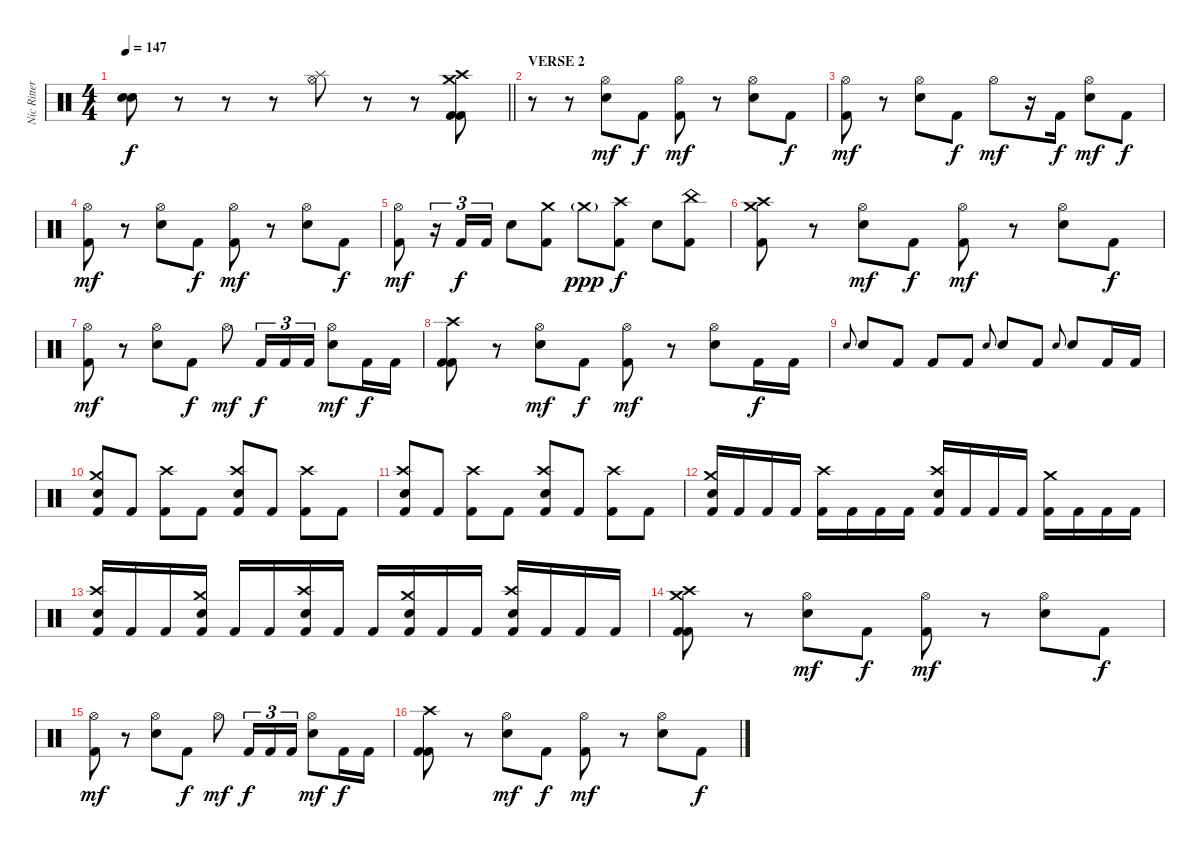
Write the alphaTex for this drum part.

\track ("Nic Ritter" "Nic Ritter") {instrument percussion}
\staff {score}
\articulation defaults
\ts (4 4)
\tempo 147
\clef neutral
\barLineRight lightlight
\ks c
("Electric Snare (hit)" "Electric Snare (hit)").8{bd 30 dy f} r.8 r.8 r.8 ("Splash (hit)" "Hi-Hat (open)").8 r.8 r.8 ("Crash medium (hit)" "Crash high (hit)" "Kick (hit) 2" "Kick (hit) 2").8 |
\section ("" "VERSE 2")
r.8 r.8 ("Hi-Hat (open)" "Electric Snare (hit)").8{dy mf} "Kick (hit) 2".8{dy f} ("Hi-Hat (open)" "Kick (hit) 2").8{dy mf} r.8 ("Hi-Hat (open)" "Electric Snare (hit)").8 "Kick (hit) 2".8{dy f} |
("Hi-Hat (open)" "Kick (hit) 2").8{dy mf} r.8 ("Hi-Hat (open)" "Electric Snare (hit)").8 "Kick (hit) 2".8{dy f} "Hi-Hat (open)".8{dy mf} r.16 "Kick (hit) 2".16{dy f} ("Hi-Hat (open)" "Electric Snare (hit)").8{dy mf} "Kick (hit) 2".8{dy f} |
("Hi-Hat (open)" "Kick (hit) 2").8{dy mf} r.8 ("Hi-Hat (open)" "Electric Snare (hit)").8 "Kick (hit) 2".8{dy f} ("Hi-Hat (open)" "Kick (hit) 2").8{dy mf} r.8 ("Hi-Hat (open)" "Electric Snare (hit)").8 "Kick (hit) 2".8{dy f} |
("Hi-Hat (open)" "Kick (hit) 2").8{dy mf} r.16{tu (3 2)} "Kick (hit) 2".16{tu (3 2) dy f} "Kick (hit) 2".16{tu (3 2)} "Electric Snare (hit)".8 ("Crash medium (hit)" "Kick (hit) 2").8 "Crash medium (hit)"{g}.8{dy ppp} ("Crash high (hit)" "Kick (hit) 2").8{dy f} "Electric Snare (hit)".8 ("China (hit)" "Kick (hit) 2").8 |
("Crash medium (hit)" "Crash high (hit)" "Kick (hit) 2").8 r.8 ("Hi-Hat (open)" "Electric Snare (hit)").8{dy mf} "Kick (hit) 2".8{dy f} ("Hi-Hat (open)" "Kick (hit) 2").8{dy mf} r.8 ("Hi-Hat (open)" "Electric Snare (hit)").8 "Kick (hit) 2".8{dy f} |
("Hi-Hat (open)" "Kick (hit) 2").8{dy mf} r.8 ("Hi-Hat (open)" "Electric Snare (hit)").8 "Kick (hit) 2".8{dy f} "Hi-Hat (open)".8{dy mf} "Kick (hit) 2".16{tu (3 2) dy f} "Kick (hit) 2".16{tu (3 2)} "Kick (hit) 2".16{tu (3 2)} ("Hi-Hat (open)" "Electric Snare (hit)").8{dy mf} "Kick (hit) 2".16{dy f} "Kick (hit) 2".16 |
("Crash high (hit)" "Kick (hit) 2" "Kick (hit) 2").8 r.8 ("Hi-Hat (open)" "Electric Snare (hit)").8{dy mf} "Kick (hit) 2".8{dy f} ("Hi-Hat (open)" "Kick (hit) 2").8{dy mf} r.8 ("Hi-Hat (open)" "Electric Snare (hit)").8 "Kick (hit) 2".16{dy f} "Kick (hit) 2".16 |
"Electric Snare (hit)".8{gr onbeat} "Electric Snare (hit)".8 "Kick (hit) 2".8 "Kick (hit) 2".8 "Kick (hit) 2".8 "Electric Snare (hit)".8{gr onbeat} "Electric Snare (hit)".8 "Kick (hit) 2".8 "Electric Snare (hit)".8{gr onbeat} "Electric Snare (hit)".8 "Kick (hit) 2".16 "Kick (hit) 2".16 |
("Crash medium (hit)" "Electric Snare (hit)" "Kick (hit) 2").8 "Kick (hit) 2".8 ("Crash high (hit)" "Kick (hit) 2").8 "Kick (hit) 2".8 ("Crash high (hit)" "Electric Snare (hit)" "Kick (hit) 2").8 "Kick (hit) 2".8 ("Crash high (hit)" "Kick (hit) 2").8 "Kick (hit) 2".8 |
("Crash high (hit)" "Electric Snare (hit)" "Kick (hit) 2").8 "Kick (hit) 2".8 ("Crash high (hit)" "Kick (hit) 2").8 "Kick (hit) 2".8 ("Crash high (hit)" "Electric Snare (hit)" "Kick (hit) 2").8 "Kick (hit) 2".8 ("Crash high (hit)" "Kick (hit) 2").8 "Kick (hit) 2".8 |
("Crash medium (hit)" "Electric Snare (hit)" "Kick (hit) 2").16 "Kick (hit) 2".16 "Kick (hit) 2".16 "Kick (hit) 2".16 ("Crash high (hit)" "Kick (hit) 2").16 "Kick (hit) 2".16 "Kick (hit) 2".16 "Kick (hit) 2".16 ("Crash high (hit)" "Electric Snare (hit)" "Kick (hit) 2").16 "Kick (hit) 2".16 "Kick (hit) 2".16 "Kick (hit) 2".16 ("Crash medium (hit)" "Kick (hit) 2").16 "Kick (hit) 2".16 "Kick (hit) 2".16 "Kick (hit) 2".16 |
("Crash high (hit)" "Electric Snare (hit)" "Kick (hit) 2").16 "Kick (hit) 2".16 "Kick (hit) 2".16 ("Crash medium (hit)" "Electric Snare (hit)" "Kick (hit) 2").16 "Kick (hit) 2".16 "Kick (hit) 2".16 ("Crash high (hit)" "Electric Snare (hit)" "Kick (hit) 2").16 "Kick (hit) 2".16 "Kick (hit) 2".16 ("Crash medium (hit)" "Electric Snare (hit)" "Kick (hit) 2").16 "Kick (hit) 2".16 "Kick (hit) 2".16 ("Crash high (hit)" "Electric Snare (hit)" "Kick (hit) 2").16 "Kick (hit) 2".16 "Kick (hit) 2".16 "Kick (hit) 2".16 |
("Crash medium (hit)" "Crash high (hit)" "Kick (hit) 2" "Kick (hit) 2").8 r.8 ("Hi-Hat (open)" "Electric Snare (hit)").8{dy mf} "Kick (hit) 2".8{dy f} ("Hi-Hat (open)" "Kick (hit) 2").8{dy mf} r.8 ("Hi-Hat (open)" "Electric Snare (hit)").8 "Kick (hit) 2".8{dy f} |
("Hi-Hat (open)" "Kick (hit) 2").8{dy mf} r.8 ("Hi-Hat (open)" "Electric Snare (hit)").8 "Kick (hit) 2".8{dy f} "Hi-Hat (open)".8{dy mf} "Kick (hit) 2".16{tu (3 2) dy f} "Kick (hit) 2".16{tu (3 2)} "Kick (hit) 2".16{tu (3 2)} ("Hi-Hat (open)" "Electric Snare (hit)").8{dy mf} "Kick (hit) 2".16{dy f} "Kick (hit) 2".16 |
("Crash high (hit)" "Kick (hit) 2" "Kick (hit) 2").8 r.8 ("Hi-Hat (open)" "Electric Snare (hit)").8{dy mf} "Kick (hit) 2".8{dy f} ("Hi-Hat (open)" "Kick (hit) 2").8{dy mf} r.8 ("Hi-Hat (open)" "Electric Snare (hit)").8 "Kick (hit) 2".8{dy f}
